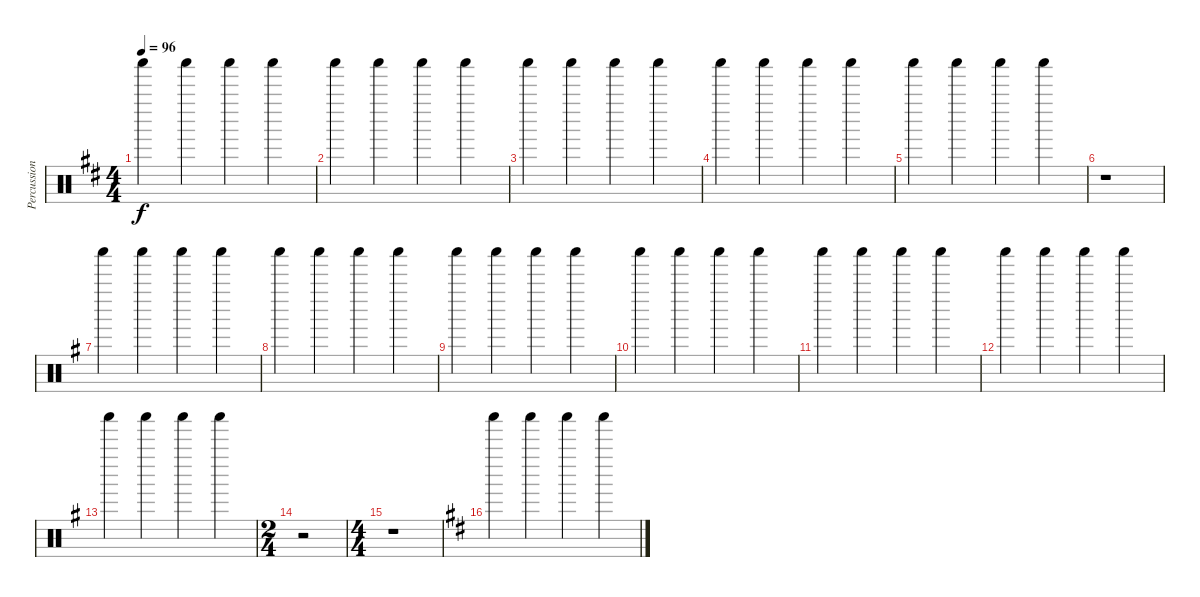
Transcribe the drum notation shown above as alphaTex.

\track ("Percussion" "Percussion") {instrument percussion}
\staff {score}
\articulation defaults
\ts (4 4)
\tempo 96
\clef neutral
\ks d "Shaker (hit)".4{dy f} "Shaker (hit)".4 "Shaker (hit)".4 "Shaker (hit)".4
|
"Shaker (hit)".4 "Shaker (hit)".4 "Shaker (hit)".4 "Shaker (hit)".4 |
"Shaker (hit)".4 "Shaker (hit)".4 "Shaker (hit)".4 "Shaker (hit)".4 |
"Shaker (hit)".4 "Shaker (hit)".4 "Shaker (hit)".4 "Shaker (hit)".4 |
"Shaker (hit)".4 "Shaker (hit)".4 "Shaker (hit)".4 "Shaker (hit)".4 |
r.1 |
\ks g "Shaker (hit)".4 "Shaker (hit)".4 "Shaker (hit)".4 "Shaker (hit)".4
|
"Shaker (hit)".4 "Shaker (hit)".4 "Shaker (hit)".4 "Shaker (hit)".4 |
"Shaker (hit)".4 "Shaker (hit)".4 "Shaker (hit)".4 "Shaker (hit)".4 |
"Shaker (hit)".4 "Shaker (hit)".4 "Shaker (hit)".4 "Shaker (hit)".4 |
"Shaker (hit)".4 "Shaker (hit)".4 "Shaker (hit)".4 "Shaker (hit)".4 |
"Shaker (hit)".4 "Shaker (hit)".4 "Shaker (hit)".4 "Shaker (hit)".4 |
"Shaker (hit)".4 "Shaker (hit)".4 "Shaker (hit)".4 "Shaker (hit)".4 |
\ts (2 4)
r.2 |
\ts (4 4)
r.1 |
\ks d "Shaker (hit)".4 "Shaker (hit)".4 "Shaker (hit)".4 "Shaker (hit)".4
